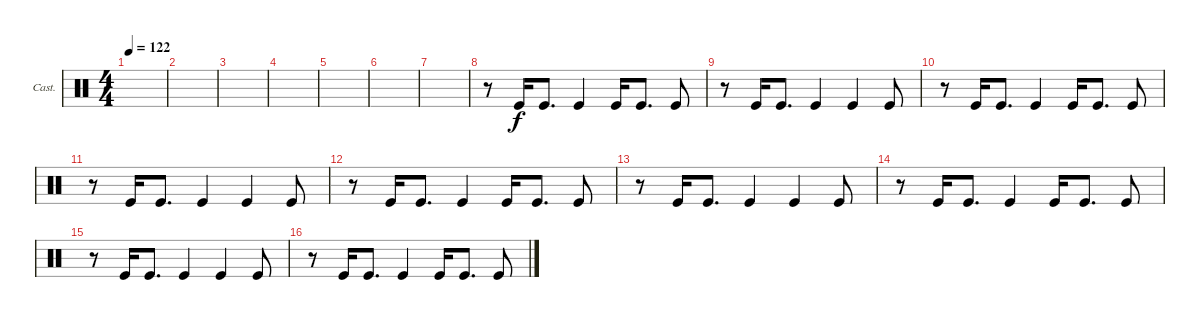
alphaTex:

\defaultSystemsLayout 4
\bracketExtendMode groupsimilarinstruments
\firstSystemTrackNameOrientation horizontal
\otherSystemsTrackNameOrientation horizontal
\track ("Castanets" "Cast.") {instrument percussion}
\staff {score}
\articulation defaults
\ts (4 4)
\tempo 122
\clef neutral
\ks c
|
|
|
|
|
|
\scale
0.531977 |
\scale
0.468023 r.8 "Kick (hit)".16 "Kick (hit)".8{d} "Kick (hit)".4 "Kick (hit)".16 "Kick (hit)".8{d} "Kick (hit)".8 |
r.8 "Kick (hit)".16 "Kick (hit)".8{d} "Kick (hit)".4 "Kick (hit)".4 "Kick (hit)".8 |
r.8 "Kick (hit)".16 "Kick (hit)".8{d} "Kick (hit)".4 "Kick (hit)".16 "Kick (hit)".8{d} "Kick (hit)".8 |
r.8 "Kick (hit)".16 "Kick (hit)".8{d} "Kick (hit)".4 "Kick (hit)".4 "Kick (hit)".8 |
r.8 "Kick (hit)".16 "Kick (hit)".8{d} "Kick (hit)".4 "Kick (hit)".16 "Kick (hit)".8{d} "Kick (hit)".8 |
\scale
0.268041 r.8 "Kick (hit)".16 "Kick (hit)".8{d} "Kick (hit)".4 "Kick (hit)".4 "Kick (hit)".8 |
r.8 "Kick (hit)".16 "Kick (hit)".8{d} "Kick (hit)".4 "Kick (hit)".16 "Kick (hit)".8{d} "Kick (hit)".8 |
r.8 "Kick (hit)".16 "Kick (hit)".8{d} "Kick (hit)".4 "Kick (hit)".4 "Kick (hit)".8 |
r.8 "Kick (hit)".16 "Kick (hit)".8{d} "Kick (hit)".4 "Kick (hit)".16 "Kick (hit)".8{d} "Kick (hit)".8
